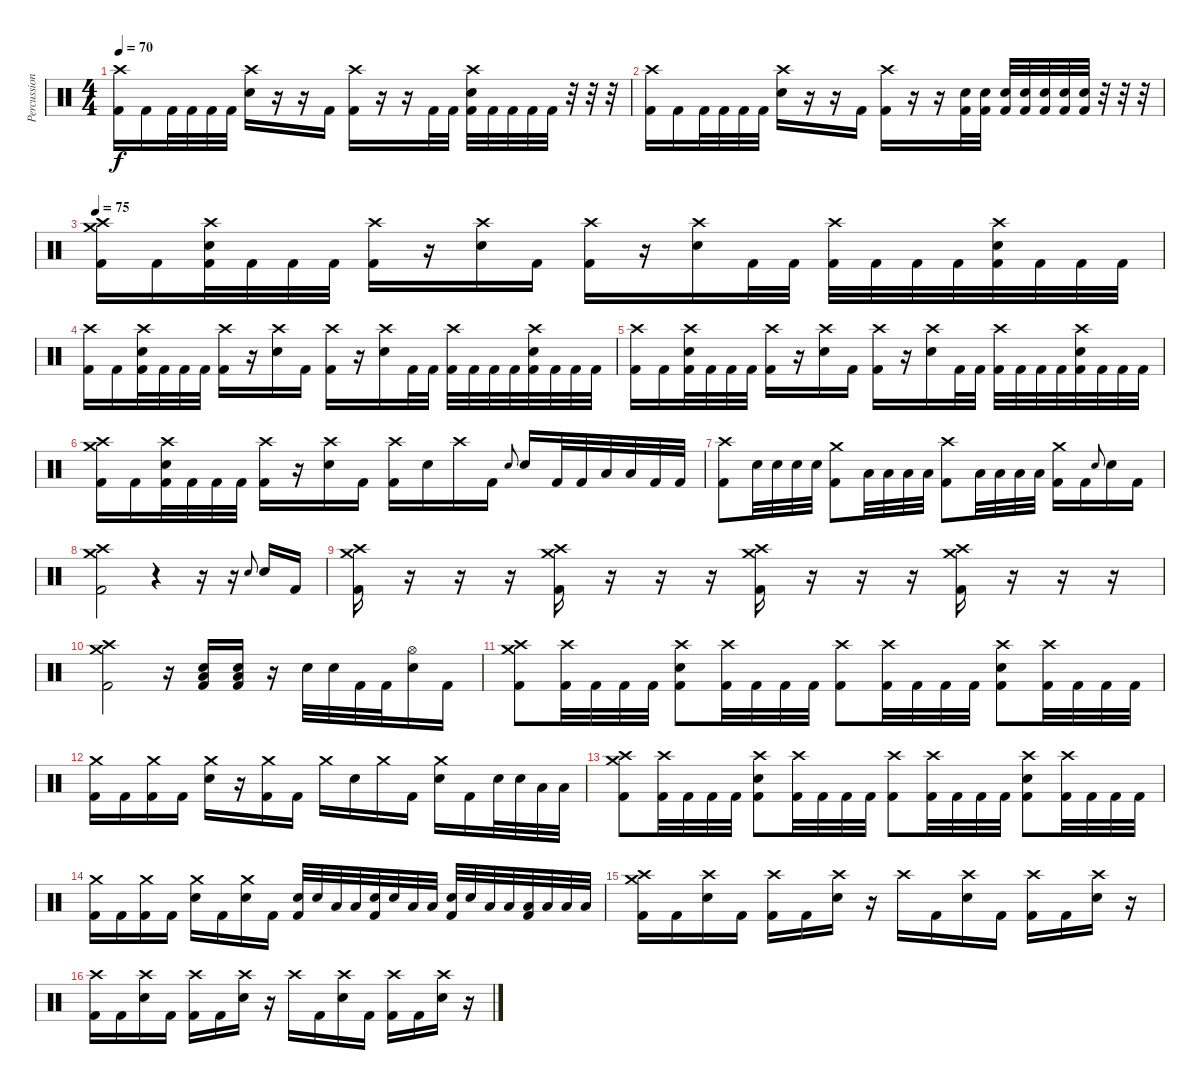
\track ("Percussion" "Percussion") {instrument percussion}
\staff {score}
\articulation defaults
\ts (4 4)
\tempo 70
\clef neutral
\ks c
("Crash high (hit)" "Kick (hit) 2").16{dy f} "Kick (hit) 2".16 "Kick (hit) 2".32 "Kick (hit) 2".32 "Kick (hit) 2".32 "Kick (hit) 2".32 ("Crash high (hit)" "Electric Snare (hit)").16 r.16 r.16 "Kick (hit) 2".16 ("Crash high (hit)" "Kick (hit) 2").16 r.16 r.16 "Kick (hit) 2".32 "Kick (hit) 2".32 ("Crash high (hit)" "Electric Snare (hit)" "Kick (hit) 2").32 "Kick (hit) 2".32 "Kick (hit) 2".32 "Kick (hit) 2".32 "Kick (hit) 2".32 r.32 r.32 r.32 |
("Crash high (hit)" "Kick (hit) 2").16 "Kick (hit) 2".16 "Kick (hit) 2".32 "Kick (hit) 2".32 "Kick (hit) 2".32 "Kick (hit) 2".32 ("Crash high (hit)" "Electric Snare (hit)").16 r.16 r.16 "Kick (hit) 2".16 ("Crash high (hit)" "Kick (hit) 2").16 r.16 r.16 ("Electric Snare (hit)" "Kick (hit) 2").32 ("Electric Snare (hit)" "Kick (hit) 2").32 ("Electric Snare (hit)" "Kick (hit) 2").32 ("Electric Snare (hit)" "Kick (hit) 2").32 ("Electric Snare (hit)" "Kick (hit) 2").32 ("Electric Snare (hit)" "Kick (hit) 2").32 ("Electric Snare (hit)" "Kick (hit) 2").32 r.32 r.32 r.32 |
\tempo 75
("Crash medium (hit)" "Crash high (hit)" "Kick (hit) 2").16 "Kick (hit) 2".16 ("Crash high (hit)" "Electric Snare (hit)" "Kick (hit) 2").32 "Kick (hit) 2".32 "Kick (hit) 2".32 "Kick (hit) 2".32 ("Crash high (hit)" "Kick (hit) 2").16 r.16 ("Crash high (hit)" "Electric Snare (hit)").16 "Kick (hit) 2".16 ("Crash high (hit)" "Kick (hit) 2").16 r.16 ("Crash high (hit)" "Electric Snare (hit)").16 "Kick (hit) 2".32 "Kick (hit) 2".32 ("Crash high (hit)" "Kick (hit) 2").32 "Kick (hit) 2".32 "Kick (hit) 2".32 "Kick (hit) 2".32 ("Crash high (hit)" "Electric Snare (hit)" "Kick (hit) 2").32 "Kick (hit) 2".32 "Kick (hit) 2".32 "Kick (hit) 2".32 |
("Crash high (hit)" "Kick (hit) 2").16 "Kick (hit) 2".16 ("Crash high (hit)" "Electric Snare (hit)" "Kick (hit) 2").32 "Kick (hit) 2".32 "Kick (hit) 2".32 "Kick (hit) 2".32 ("Crash high (hit)" "Kick (hit) 2").16 r.16 ("Crash high (hit)" "Electric Snare (hit)").16 "Kick (hit) 2".16 ("Crash high (hit)" "Kick (hit) 2").16 r.16 ("Crash high (hit)" "Electric Snare (hit)").16 "Kick (hit) 2".32 "Kick (hit) 2".32 ("Crash high (hit)" "Kick (hit) 2").32 "Kick (hit) 2".32 "Kick (hit) 2".32 "Kick (hit) 2".32 ("Crash high (hit)" "Electric Snare (hit)" "Kick (hit) 2").32 "Kick (hit) 2".32 "Kick (hit) 2".32 "Kick (hit) 2".32 |
("Crash high (hit)" "Kick (hit) 2").16 "Kick (hit) 2".16 ("Crash high (hit)" "Electric Snare (hit)" "Kick (hit) 2").32 "Kick (hit) 2".32 "Kick (hit) 2".32 "Kick (hit) 2".32 ("Crash high (hit)" "Kick (hit) 2").16 r.16 ("Crash high (hit)" "Electric Snare (hit)").16 "Kick (hit) 2".16 ("Crash high (hit)" "Kick (hit) 2").16 r.16 ("Crash high (hit)" "Electric Snare (hit)").16 "Kick (hit) 2".32 "Kick (hit) 2".32 ("Crash high (hit)" "Kick (hit) 2").32 "Kick (hit) 2".32 "Kick (hit) 2".32 "Kick (hit) 2".32 ("Crash high (hit)" "Electric Snare (hit)" "Kick (hit) 2").32 "Kick (hit) 2".32 "Kick (hit) 2".32 "Kick (hit) 2".32 |
("Crash medium (hit)" "Crash high (hit)" "Kick (hit) 2").16 "Kick (hit) 2".16 ("Crash high (hit)" "Electric Snare (hit)" "Kick (hit) 2").32 "Kick (hit) 2".32 "Kick (hit) 2".32 "Kick (hit) 2".32 ("Crash high (hit)" "Kick (hit) 2").16 r.16 ("Crash high (hit)" "Electric Snare (hit)").16 "Kick (hit) 2".16 ("Crash high (hit)" "Kick (hit) 2").16 "Electric Snare (hit)".16 "Crash high (hit)".16 "Kick (hit) 2".16 "Electric Snare (hit)".8{gr onbeat} "Electric Snare (hit)".16 "Kick (hit) 2".32 "Kick (hit) 2".32 "Low Tom (hit)".32 "Low Tom (hit)".32 "Kick (hit) 2".32 "Kick (hit) 2".32 |
("Crash high (hit)" "Kick (hit) 2").8 "Electric Snare (hit)".32 "Electric Snare (hit)".32 "Electric Snare (hit)".32 "Electric Snare (hit)".32 ("Crash medium (hit)" "Kick (hit) 2").8 "Low Tom (hit)".32 "Low Tom (hit)".32 "Low Tom (hit)".32 "Low Tom (hit)".32 ("Crash high (hit)" "Kick (hit) 2").8 "Low Floor Tom (hit)".32 "Low Floor Tom (hit)".32 "Low Floor Tom (hit)".32 "Low Floor Tom (hit)".32 ("Crash medium (hit)" "Kick (hit) 2").16 "Kick (hit) 2".16 "Electric Snare (hit)".8{gr onbeat} "Electric Snare (hit)".16 "Kick (hit) 2".16 |
("Crash medium (hit)" "Crash high (hit)" "Kick (hit) 2").2 r.4 r.16 r.16 "Electric Snare (hit)".8{gr onbeat} "Electric Snare (hit)".16 "Kick (hit) 2".16 |
("Crash medium (hit)" "Crash high (hit)" "Kick (hit) 2").16 r.16{volume 0} r.16 r.16 ("Crash medium (hit)" "Crash high (hit)" "Kick (hit) 2").16{volume 13} r.16{volume 0} r.16 r.16 ("Crash medium (hit)" "Crash high (hit)" "Kick (hit) 2").16{volume 13} r.16{volume 0} r.16 r.16 ("Crash medium (hit)" "Crash high (hit)" "Kick (hit) 2").16{volume 13} r.16{volume 0} r.16 r.16 |
("Crash medium (hit)" "Crash high (hit)" "Kick (hit) 2").2{volume 13} r.16 ("Low Floor Tom (hit)" "Electric Snare (hit)" "Kick (hit) 2").16 ("Low Floor Tom (hit)" "Electric Snare (hit)" "Kick (hit) 2").16 r.16 "Electric Snare (hit)".32 "Electric Snare (hit)".32 "Kick (hit) 2".32 "Kick (hit) 2".32 ("Hi-Hat (open)" "Electric Snare (hit)").16 "Kick (hit) 2".16 |
("Crash medium (hit)" "Crash high (hit)" "Kick (hit) 2").8 ("Crash high (hit)" "Kick (hit) 2").32 "Kick (hit) 2".32 "Kick (hit) 2".32 "Kick (hit) 2".32 ("Crash high (hit)" "Electric Snare (hit)" "Kick (hit) 2").8 ("Crash high (hit)" "Kick (hit) 2").32 "Kick (hit) 2".32 "Kick (hit) 2".32 "Kick (hit) 2".32 ("Crash high (hit)" "Kick (hit) 2").8 ("Crash high (hit)" "Kick (hit) 2").32 "Kick (hit) 2".32 "Kick (hit) 2".32 "Kick (hit) 2".32 ("Crash high (hit)" "Electric Snare (hit)" "Kick (hit) 2").8 ("Crash high (hit)" "Kick (hit) 2").32 "Kick (hit) 2".32 "Kick (hit) 2".32 "Kick (hit) 2".32 |
("Crash medium (hit)" "Kick (hit) 2").16 "Kick (hit) 2".16 ("Crash medium (hit)" "Kick (hit) 2").16 "Kick (hit) 2".16 ("Crash medium (hit)" "Electric Snare (hit)").16 r.16 ("Crash medium (hit)" "Kick (hit) 2").16 "Kick (hit) 2".16 "Crash medium (hit)".16 "Electric Snare (hit)".16 "Crash medium (hit)".16 "Kick (hit) 2".16 ("Crash medium (hit)" "Electric Snare (hit)").16 "Kick (hit) 2".16 "Electric Snare (hit)".32 "Electric Snare (hit)".32 "Low Tom (hit)".32 "Low Tom (hit)".32 |
("Crash medium (hit)" "Crash high (hit)" "Kick (hit) 2").8 ("Crash high (hit)" "Kick (hit) 2").32 "Kick (hit) 2".32 "Kick (hit) 2".32 "Kick (hit) 2".32 ("Crash high (hit)" "Electric Snare (hit)" "Kick (hit) 2").8 ("Crash high (hit)" "Kick (hit) 2").32 "Kick (hit) 2".32 "Kick (hit) 2".32 "Kick (hit) 2".32 ("Crash high (hit)" "Kick (hit) 2").8 ("Crash high (hit)" "Kick (hit) 2").32 "Kick (hit) 2".32 "Kick (hit) 2".32 "Kick (hit) 2".32 ("Crash high (hit)" "Electric Snare (hit)" "Kick (hit) 2").8 ("Crash high (hit)" "Kick (hit) 2").32 "Kick (hit) 2".32 "Kick (hit) 2".32 "Kick (hit) 2".32 |
("Crash medium (hit)" "Kick (hit) 2").16 "Kick (hit) 2".16 ("Crash medium (hit)" "Kick (hit) 2").16 "Kick (hit) 2".16 ("Crash medium (hit)" "Electric Snare (hit)").16 "Kick (hit) 2".16 ("Crash medium (hit)" "Electric Snare (hit)").16 "Kick (hit) 2".16 ("Electric Snare (hit)" "Kick (hit) 2").32 "Electric Snare (hit)".32 "Low Tom (hit)".32 "Low Tom (hit)".32 ("Electric Snare (hit)" "Kick (hit) 2").32 "Electric Snare (hit)".32 "Low Tom (hit)".32 "Low Tom (hit)".32 ("Electric Snare (hit)" "Kick (hit) 2").32 "Electric Snare (hit)".32 "Low Tom (hit)".32 "Low Tom (hit)".32 ("Low Floor Tom (hit)" "Kick (hit) 2").32 "Low Floor Tom (hit)".32 "Low Floor Tom (hit)".32 "Low Floor Tom (hit)".32 |
("Crash medium (hit)" "Crash high (hit)" "Kick (hit) 2").16 "Kick (hit) 2".16 ("Crash high (hit)" "Electric Snare (hit)").16 "Kick (hit) 2".16 ("Crash high (hit)" "Kick (hit) 2").16 "Kick (hit) 2".16 ("Crash high (hit)" "Electric Snare (hit)").16 r.16 "Crash high (hit)".16 "Kick (hit) 2".16 ("Crash high (hit)" "Electric Snare (hit)").16 "Kick (hit) 2".16 ("Crash high (hit)" "Kick (hit) 2").16 "Kick (hit) 2".16 ("Crash high (hit)" "Electric Snare (hit)").16 r.16 |
("Crash high (hit)" "Kick (hit) 2").16 "Kick (hit) 2".16 ("Crash high (hit)" "Electric Snare (hit)").16 "Kick (hit) 2".16 ("Crash high (hit)" "Kick (hit) 2").16 "Kick (hit) 2".16 ("Crash high (hit)" "Electric Snare (hit)").16 r.16 "Crash high (hit)".16 "Kick (hit) 2".16 ("Crash high (hit)" "Electric Snare (hit)").16 "Kick (hit) 2".16 ("Crash high (hit)" "Kick (hit) 2").16 "Kick (hit) 2".16 ("Crash high (hit)" "Electric Snare (hit)").16 r.16
